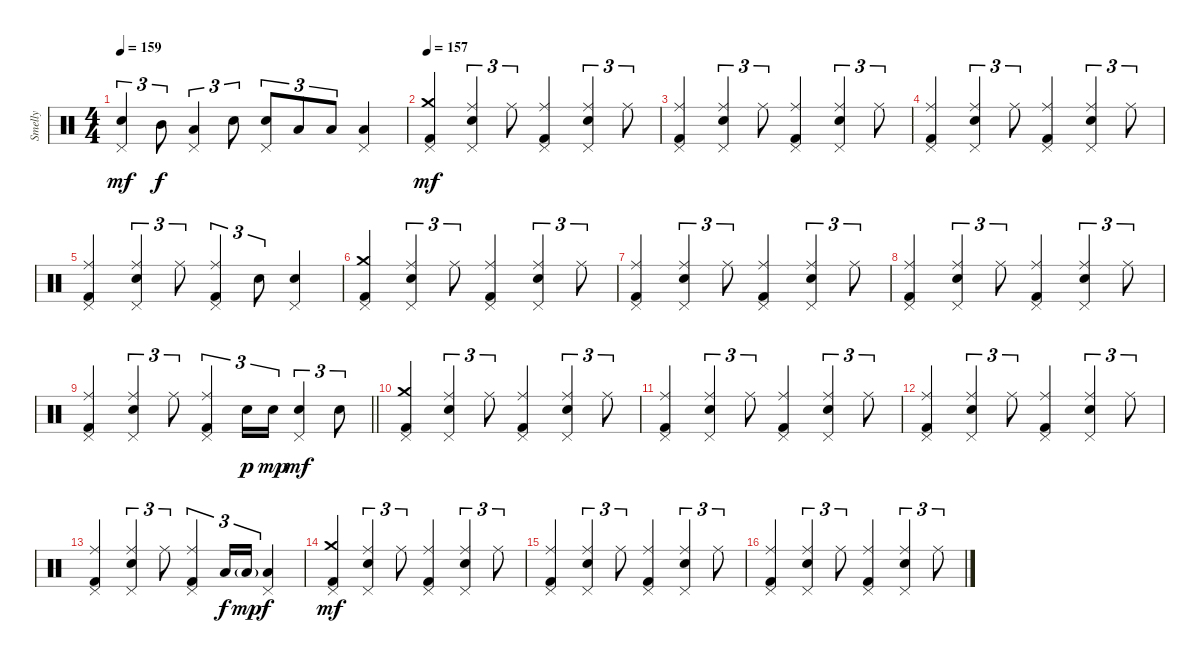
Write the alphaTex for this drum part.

\track ("Smelly" "Smelly") {instrument percussion}
\staff {score}
\articulation defaults
\ts (4 4)
\tempo 159
\clef neutral
\ks c
("Pedal Hi-Hat (hit)" "Electric Snare (hit)").4{tu (3 2) dy mf} "Mid Tom (hit)".8{tu (3 2) dy f} ("Pedal Hi-Hat (hit)" "Low Tom (hit)").4{tu (3 2)} "Electric Snare (hit)".8{tu (3 2)} ("Pedal Hi-Hat (hit)" "Electric Snare (hit)").8{tu (3 2)} "Low Tom (hit)".8{tu (3 2)} "Low Tom (hit)".8{tu (3 2)} ("Pedal Hi-Hat (hit)" "Low Floor Tom (hit)").4 |
\tempo 157
("Pedal Hi-Hat (hit)" "Crash medium (hit)" "Kick (hit) 2").4{dy mf} ("Pedal Hi-Hat (hit)" "Ride (middle)" "Electric Snare (hit)").4{tu (3 2)} "Ride (middle)".8{tu (3 2)} ("Pedal Hi-Hat (hit)" "Ride (middle)" "Kick (hit) 2").4 ("Pedal Hi-Hat (hit)" "Ride (middle)" "Electric Snare (hit)").4{tu (3 2)} "Ride (middle)".8{tu (3 2)} |
("Pedal Hi-Hat (hit)" "Ride (middle)" "Kick (hit) 2").4 ("Pedal Hi-Hat (hit)" "Ride (middle)" "Electric Snare (hit)").4{tu (3 2)} "Ride (middle)".8{tu (3 2)} ("Pedal Hi-Hat (hit)" "Ride (middle)" "Kick (hit) 2").4 ("Pedal Hi-Hat (hit)" "Ride (middle)" "Electric Snare (hit)").4{tu (3 2)} "Ride (middle)".8{tu (3 2)} |
("Pedal Hi-Hat (hit)" "Ride (middle)" "Kick (hit) 2").4 ("Pedal Hi-Hat (hit)" "Ride (middle)" "Electric Snare (hit)").4{tu (3 2)} "Ride (middle)".8{tu (3 2)} ("Pedal Hi-Hat (hit)" "Ride (middle)" "Kick (hit) 2").4 ("Pedal Hi-Hat (hit)" "Ride (middle)" "Electric Snare (hit)").4{tu (3 2)} "Ride (middle)".8{tu (3 2)} |
("Pedal Hi-Hat (hit)" "Ride (middle)" "Kick (hit) 2").4 ("Pedal Hi-Hat (hit)" "Ride (middle)" "Electric Snare (hit)").4{tu (3 2)} "Ride (middle)".8{tu (3 2)} ("Pedal Hi-Hat (hit)" "Ride (middle)" "Kick (hit) 2").4{tu (3 2)} "Electric Snare (hit)".8{tu (3 2)} ("Pedal Hi-Hat (hit)" "Electric Snare (hit)").4 |
("Pedal Hi-Hat (hit)" "Crash medium (hit)" "Kick (hit) 2").4 ("Pedal Hi-Hat (hit)" "Ride (middle)" "Electric Snare (hit)").4{tu (3 2)} "Ride (middle)".8{tu (3 2)} ("Pedal Hi-Hat (hit)" "Ride (middle)" "Kick (hit) 2").4 ("Pedal Hi-Hat (hit)" "Ride (middle)" "Electric Snare (hit)").4{tu (3 2)} "Ride (middle)".8{tu (3 2)} |
("Pedal Hi-Hat (hit)" "Ride (middle)" "Kick (hit) 2").4 ("Pedal Hi-Hat (hit)" "Ride (middle)" "Electric Snare (hit)").4{tu (3 2)} "Ride (middle)".8{tu (3 2)} ("Pedal Hi-Hat (hit)" "Ride (middle)" "Kick (hit) 2").4 ("Pedal Hi-Hat (hit)" "Ride (middle)" "Electric Snare (hit)").4{tu (3 2)} "Ride (middle)".8{tu (3 2)} |
("Pedal Hi-Hat (hit)" "Ride (middle)" "Kick (hit) 2").4 ("Pedal Hi-Hat (hit)" "Ride (middle)" "Electric Snare (hit)").4{tu (3 2)} "Ride (middle)".8{tu (3 2)} ("Pedal Hi-Hat (hit)" "Ride (middle)" "Kick (hit) 2").4 ("Pedal Hi-Hat (hit)" "Ride (middle)" "Electric Snare (hit)").4{tu (3 2)} "Ride (middle)".8{tu (3 2)} |
\barLineRight lightlight
("Pedal Hi-Hat (hit)" "Ride (middle)" "Kick (hit) 2").4 ("Pedal Hi-Hat (hit)" "Ride (middle)" "Electric Snare (hit)").4{tu (3 2)} "Ride (middle)".8{tu (3 2)} ("Pedal Hi-Hat (hit)" "Ride (middle)" "Kick (hit) 2").4{tu (3 2)} "Electric Snare (hit)".16{tu (3 2) dy p} "Electric Snare (hit)".16{tu (3 2) dy mp} ("Pedal Hi-Hat (hit)" "Electric Snare (hit)").4{tu (3 2) dy mf} "Electric Snare (hit)".8{tu (3 2)} |
\section ("" "")
("Pedal Hi-Hat (hit)" "Crash medium (hit)" "Kick (hit) 2").4 ("Pedal Hi-Hat (hit)" "Ride (middle)" "Electric Snare (hit)").4{tu (3 2)} "Ride (middle)".8{tu (3 2)} ("Pedal Hi-Hat (hit)" "Ride (middle)" "Kick (hit) 2").4 ("Pedal Hi-Hat (hit)" "Ride (middle)" "Electric Snare (hit)").4{tu (3 2)} "Ride (middle)".8{tu (3 2)} |
("Pedal Hi-Hat (hit)" "Ride (middle)" "Kick (hit) 2").4 ("Pedal Hi-Hat (hit)" "Ride (middle)" "Electric Snare (hit)").4{tu (3 2)} "Ride (middle)".8{tu (3 2)} ("Pedal Hi-Hat (hit)" "Ride (middle)" "Kick (hit) 2").4 ("Pedal Hi-Hat (hit)" "Ride (middle)" "Electric Snare (hit)").4{tu (3 2)} "Ride (middle)".8{tu (3 2)} |
("Pedal Hi-Hat (hit)" "Ride (middle)" "Kick (hit) 2").4 ("Pedal Hi-Hat (hit)" "Ride (middle)" "Electric Snare (hit)").4{tu (3 2)} "Ride (middle)".8{tu (3 2)} ("Pedal Hi-Hat (hit)" "Ride (middle)" "Kick (hit) 2").4 ("Pedal Hi-Hat (hit)" "Ride (middle)" "Electric Snare (hit)").4{tu (3 2)} "Ride (middle)".8{tu (3 2)} |
("Pedal Hi-Hat (hit)" "Ride (middle)" "Kick (hit) 2").4 ("Pedal Hi-Hat (hit)" "Ride (middle)" "Electric Snare (hit)").4{tu (3 2)} "Ride (middle)".8{tu (3 2)} ("Pedal Hi-Hat (hit)" "Ride (middle)" "Kick (hit) 2").4{tu (3 2)} "Low Floor Tom (hit)".16{tu (3 2) dy f} "Low Floor Tom (hit)"{g}.16{tu (3 2) dy mp} ("Pedal Hi-Hat (hit)" "Low Floor Tom (hit)").4{dy f} |
("Pedal Hi-Hat (hit)" "Crash medium (hit)" "Kick (hit) 2").4{dy mf} ("Pedal Hi-Hat (hit)" "Ride (middle)" "Electric Snare (hit)").4{tu (3 2)} "Ride (middle)".8{tu (3 2)} ("Pedal Hi-Hat (hit)" "Ride (middle)" "Kick (hit) 2").4 ("Pedal Hi-Hat (hit)" "Ride (middle)" "Electric Snare (hit)").4{tu (3 2)} "Ride (middle)".8{tu (3 2)} |
("Pedal Hi-Hat (hit)" "Ride (middle)" "Kick (hit) 2").4 ("Pedal Hi-Hat (hit)" "Ride (middle)" "Electric Snare (hit)").4{tu (3 2)} "Ride (middle)".8{tu (3 2)} ("Pedal Hi-Hat (hit)" "Ride (middle)" "Kick (hit) 2").4 ("Pedal Hi-Hat (hit)" "Ride (middle)" "Electric Snare (hit)").4{tu (3 2)} "Ride (middle)".8{tu (3 2)} |
("Pedal Hi-Hat (hit)" "Ride (middle)" "Kick (hit) 2").4 ("Pedal Hi-Hat (hit)" "Ride (middle)" "Electric Snare (hit)").4{tu (3 2)} "Ride (middle)".8{tu (3 2)} ("Pedal Hi-Hat (hit)" "Ride (middle)" "Kick (hit) 2").4 ("Pedal Hi-Hat (hit)" "Ride (middle)" "Electric Snare (hit)").4{tu (3 2)} "Ride (middle)".8{tu (3 2)}
